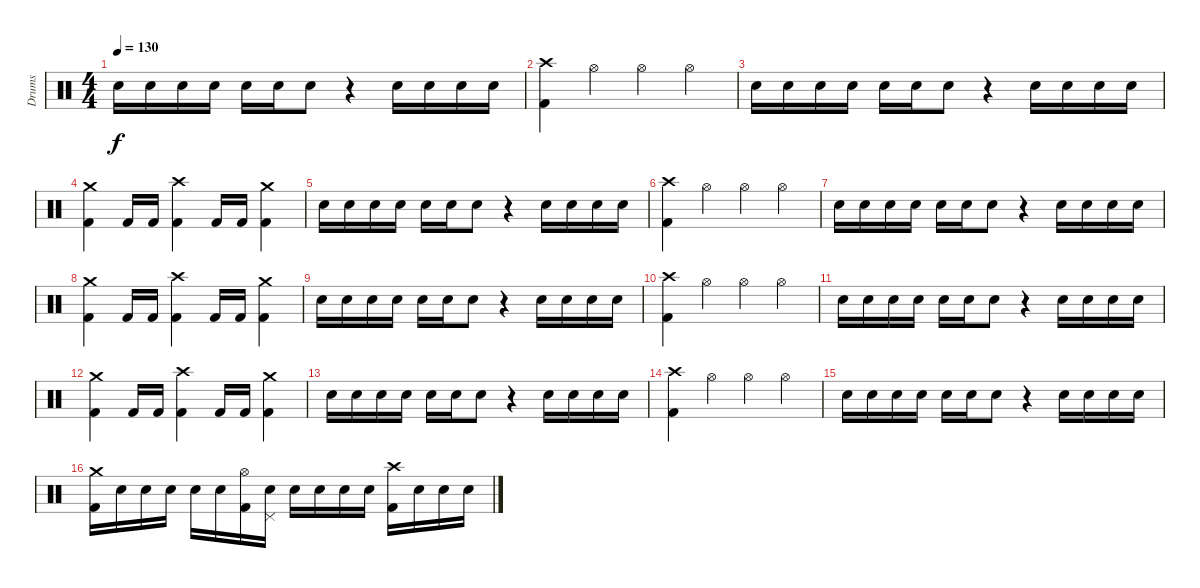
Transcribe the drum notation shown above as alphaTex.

\track ("Drums" "Drums") {instrument percussion}
\staff {score}
\articulation defaults
\ts (4 4)
\tempo 130
\clef neutral
\ks c "Snare (hit) 2".16{dy f} "Snare (hit) 2".16 "Snare (hit) 2".16 "Snare (hit) 2".16 "Snare (hit) 2".16 "Snare (hit) 2".16 "Snare (hit) 2".8
r.4 "Snare (hit) 2".16 "Snare (hit) 2".16 "Snare (hit) 2".16 "Snare (hit) 2".16 |
("Crash high (hit)" "Kick (hit) 2").4 "Hi-Hat (open)".4 "Hi-Hat (open)".4 "Hi-Hat (open)".4 |
"Snare (hit) 2".16 "Snare (hit) 2".16 "Snare (hit) 2".16 "Snare (hit) 2".16 "Snare (hit) 2".16 "Snare (hit) 2".16 "Snare (hit) 2".8 r.4 "Snare (hit) 2".16 "Snare (hit) 2".16 "Snare (hit) 2".16 "Snare (hit) 2".16 |
("Crash medium (hit)" "Kick (hit) 2").4 "Kick (hit) 2".16 "Kick (hit) 2".16 ("Crash high (hit)" "Kick (hit) 2").4 "Kick (hit) 2".16 "Kick (hit) 2".16 ("Crash medium (hit)" "Kick (hit) 2").4 |
"Snare (hit) 2".16 "Snare (hit) 2".16 "Snare (hit) 2".16 "Snare (hit) 2".16 "Snare (hit) 2".16 "Snare (hit) 2".16 "Snare (hit) 2".8 r.4 "Snare (hit) 2".16 "Snare (hit) 2".16 "Snare (hit) 2".16 "Snare (hit) 2".16 |
("Crash high (hit)" "Kick (hit) 2").4 "Hi-Hat (open)".4 "Hi-Hat (open)".4 "Hi-Hat (open)".4 |
"Snare (hit) 2".16 "Snare (hit) 2".16 "Snare (hit) 2".16 "Snare (hit) 2".16 "Snare (hit) 2".16 "Snare (hit) 2".16 "Snare (hit) 2".8 r.4 "Snare (hit) 2".16 "Snare (hit) 2".16 "Snare (hit) 2".16 "Snare (hit) 2".16 |
("Crash medium (hit)" "Kick (hit) 2").4 "Kick (hit) 2".16 "Kick (hit) 2".16 ("Crash high (hit)" "Kick (hit) 2").4 "Kick (hit) 2".16 "Kick (hit) 2".16 ("Crash medium (hit)" "Kick (hit) 2").4 |
"Snare (hit) 2".16 "Snare (hit) 2".16 "Snare (hit) 2".16 "Snare (hit) 2".16 "Snare (hit) 2".16 "Snare (hit) 2".16 "Snare (hit) 2".8 r.4 "Snare (hit) 2".16 "Snare (hit) 2".16 "Snare (hit) 2".16 "Snare (hit) 2".16 |
("Crash high (hit)" "Kick (hit) 2").4 "Hi-Hat (open)".4 "Hi-Hat (open)".4 "Hi-Hat (open)".4 |
"Snare (hit) 2".16 "Snare (hit) 2".16 "Snare (hit) 2".16 "Snare (hit) 2".16 "Snare (hit) 2".16 "Snare (hit) 2".16 "Snare (hit) 2".8 r.4 "Snare (hit) 2".16 "Snare (hit) 2".16 "Snare (hit) 2".16 "Snare (hit) 2".16 |
("Crash medium (hit)" "Kick (hit) 2").4 "Kick (hit) 2".16 "Kick (hit) 2".16 ("Crash high (hit)" "Kick (hit) 2").4 "Kick (hit) 2".16 "Kick (hit) 2".16 ("Crash medium (hit)" "Kick (hit) 2").4 |
"Snare (hit) 2".16 "Snare (hit) 2".16 "Snare (hit) 2".16 "Snare (hit) 2".16 "Snare (hit) 2".16 "Snare (hit) 2".16 "Snare (hit) 2".8 r.4 "Snare (hit) 2".16 "Snare (hit) 2".16 "Snare (hit) 2".16 "Snare (hit) 2".16 |
("Crash high (hit)" "Kick (hit) 2").4 "Hi-Hat (open)".4 "Hi-Hat (open)".4 "Hi-Hat (open)".4 |
"Snare (hit) 2".16 "Snare (hit) 2".16 "Snare (hit) 2".16 "Snare (hit) 2".16 "Snare (hit) 2".16 "Snare (hit) 2".16 "Snare (hit) 2".8 r.4 "Snare (hit) 2".16 "Snare (hit) 2".16 "Snare (hit) 2".16 "Snare (hit) 2".16 |
("Crash medium (hit)" "Kick (hit) 2").16 "Snare (hit) 2".16 "Snare (hit) 2".16 "Snare (hit) 2".16 "Snare (hit) 2".16 "Snare (hit) 2".16 ("Hi-Hat (open)" "Kick (hit) 2").16 ("Pedal Hi-Hat (hit)" "Snare (hit) 2").16 "Snare (hit) 2".16 "Snare (hit) 2".16 "Snare (hit) 2".16 "Snare (hit) 2".16 ("Crash high (hit)" "Kick (hit) 2").16 "Snare (hit) 2".16 "Snare (hit) 2".16 "Snare (hit) 2".16
